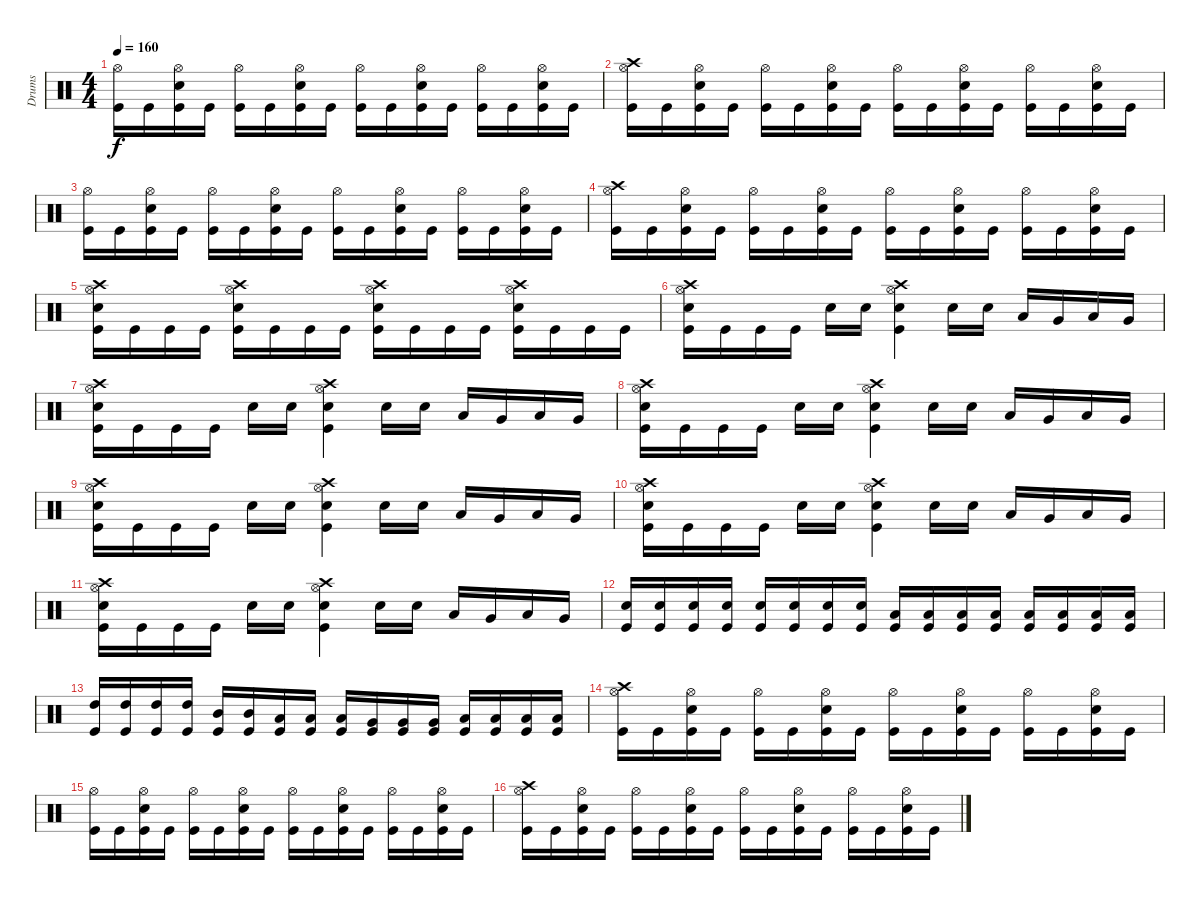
\track ("Drums" "Drums") {instrument percussion}
\staff {score}
\articulation defaults
\ts (4 4)
\tempo 160
\clef neutral
\ks c
("Hi-Hat (open)" "Kick (hit)").16{dy f} "Kick (hit)".16 ("Hi-Hat (open)" "Electric Snare (hit)" "Kick (hit)").16 "Kick (hit)".16 ("Hi-Hat (open)" "Kick (hit)").16 "Kick (hit)".16 ("Hi-Hat (open)" "Electric Snare (hit)" "Kick (hit)").16 "Kick (hit)".16 ("Hi-Hat (open)" "Kick (hit)").16 "Kick (hit)".16 ("Hi-Hat (open)" "Electric Snare (hit)" "Kick (hit)").16 "Kick (hit)".16 ("Hi-Hat (open)" "Kick (hit)").16 "Kick (hit)".16 ("Hi-Hat (open)" "Electric Snare (hit)" "Kick (hit)").16 "Kick (hit)".16 |
("Crash high (hit)" "Hi-Hat (open)" "Kick (hit)").16 "Kick (hit)".16 ("Hi-Hat (open)" "Electric Snare (hit)" "Kick (hit)").16 "Kick (hit)".16 ("Hi-Hat (open)" "Kick (hit)").16 "Kick (hit)".16 ("Hi-Hat (open)" "Electric Snare (hit)" "Kick (hit)").16 "Kick (hit)".16 ("Hi-Hat (open)" "Kick (hit)").16 "Kick (hit)".16 ("Hi-Hat (open)" "Electric Snare (hit)" "Kick (hit)").16 "Kick (hit)".16 ("Hi-Hat (open)" "Kick (hit)").16 "Kick (hit)".16 ("Hi-Hat (open)" "Electric Snare (hit)" "Kick (hit)").16 "Kick (hit)".16 |
("Hi-Hat (open)" "Kick (hit)").16 "Kick (hit)".16 ("Hi-Hat (open)" "Electric Snare (hit)" "Kick (hit)").16 "Kick (hit)".16 ("Hi-Hat (open)" "Kick (hit)").16 "Kick (hit)".16 ("Hi-Hat (open)" "Electric Snare (hit)" "Kick (hit)").16 "Kick (hit)".16 ("Hi-Hat (open)" "Kick (hit)").16 "Kick (hit)".16 ("Hi-Hat (open)" "Electric Snare (hit)" "Kick (hit)").16 "Kick (hit)".16 ("Hi-Hat (open)" "Kick (hit)").16 "Kick (hit)".16 ("Hi-Hat (open)" "Electric Snare (hit)" "Kick (hit)").16 "Kick (hit)".16 |
("Crash high (hit)" "Hi-Hat (open)" "Kick (hit)").16 "Kick (hit)".16 ("Hi-Hat (open)" "Electric Snare (hit)" "Kick (hit)").16 "Kick (hit)".16 ("Hi-Hat (open)" "Kick (hit)").16 "Kick (hit)".16 ("Hi-Hat (open)" "Electric Snare (hit)" "Kick (hit)").16 "Kick (hit)".16 ("Hi-Hat (open)" "Kick (hit)").16 "Kick (hit)".16 ("Hi-Hat (open)" "Electric Snare (hit)" "Kick (hit)").16 "Kick (hit)".16 ("Hi-Hat (open)" "Kick (hit)").16 "Kick (hit)".16 ("Hi-Hat (open)" "Electric Snare (hit)" "Kick (hit)").16 "Kick (hit)".16 |
("Electric Snare (hit)" "Crash high (hit)" "Hi-Hat (open)" "Kick (hit)").16 "Kick (hit)".16 "Kick (hit)".16 "Kick (hit)".16 ("Electric Snare (hit)" "Crash high (hit)" "Hi-Hat (open)" "Kick (hit)").16 "Kick (hit)".16 "Kick (hit)".16 "Kick (hit)".16 ("Electric Snare (hit)" "Crash high (hit)" "Hi-Hat (open)" "Kick (hit)").16 "Kick (hit)".16 "Kick (hit)".16 "Kick (hit)".16 ("Crash high (hit)" "Electric Snare (hit)" "Hi-Hat (open)" "Kick (hit)").16 "Kick (hit)".16 "Kick (hit)".16 "Kick (hit)".16 |
("Electric Snare (hit)" "Crash high (hit)" "Hi-Hat (open)" "Kick (hit)").16 "Kick (hit)".16 "Kick (hit)".16 "Kick (hit)".16 "Electric Snare (hit)".16 "Electric Snare (hit)".16 ("Electric Snare (hit)" "Crash high (hit)" "Hi-Hat (open)" "Kick (hit)").4 "Electric Snare (hit)".16 "Electric Snare (hit)".16 "Low Tom (hit)".16 "Very Low Tom (hit)".16 "Low Floor Tom (hit)".16 "Very Low Tom (hit)".16 |
("Electric Snare (hit)" "Crash high (hit)" "Hi-Hat (open)" "Kick (hit)").16 "Kick (hit)".16 "Kick (hit)".16 "Kick (hit)".16 "Electric Snare (hit)".16 "Electric Snare (hit)".16 ("Electric Snare (hit)" "Crash high (hit)" "Hi-Hat (open)" "Kick (hit)").4 "Electric Snare (hit)".16 "Electric Snare (hit)".16 "Low Tom (hit)".16 "Very Low Tom (hit)".16 "Low Floor Tom (hit)".16 "Very Low Tom (hit)".16 |
("Electric Snare (hit)" "Crash high (hit)" "Hi-Hat (open)" "Kick (hit)").16 "Kick (hit)".16 "Kick (hit)".16 "Kick (hit)".16 "Electric Snare (hit)".16 "Electric Snare (hit)".16 ("Electric Snare (hit)" "Crash high (hit)" "Hi-Hat (open)" "Kick (hit)").4 "Electric Snare (hit)".16 "Electric Snare (hit)".16 "Low Tom (hit)".16 "Very Low Tom (hit)".16 "Low Floor Tom (hit)".16 "Very Low Tom (hit)".16 |
("Electric Snare (hit)" "Crash high (hit)" "Hi-Hat (open)" "Kick (hit)").16 "Kick (hit)".16 "Kick (hit)".16 "Kick (hit)".16 "Electric Snare (hit)".16 "Electric Snare (hit)".16 ("Electric Snare (hit)" "Crash high (hit)" "Hi-Hat (open)" "Kick (hit)").4 "Electric Snare (hit)".16 "Electric Snare (hit)".16 "Low Tom (hit)".16 "Very Low Tom (hit)".16 "Low Floor Tom (hit)".16 "Very Low Tom (hit)".16 |
("Electric Snare (hit)" "Crash high (hit)" "Hi-Hat (open)" "Kick (hit)").16 "Kick (hit)".16 "Kick (hit)".16 "Kick (hit)".16 "Electric Snare (hit)".16 "Electric Snare (hit)".16 ("Electric Snare (hit)" "Crash high (hit)" "Hi-Hat (open)" "Kick (hit)").4 "Electric Snare (hit)".16 "Electric Snare (hit)".16 "Low Tom (hit)".16 "Very Low Tom (hit)".16 "Low Floor Tom (hit)".16 "Very Low Tom (hit)".16 |
("Electric Snare (hit)" "Crash high (hit)" "Hi-Hat (open)" "Kick (hit)").16 "Kick (hit)".16 "Kick (hit)".16 "Kick (hit)".16 "Electric Snare (hit)".16 "Electric Snare (hit)".16 ("Electric Snare (hit)" "Crash high (hit)" "Hi-Hat (open)" "Kick (hit)").4 "Electric Snare (hit)".16 "Electric Snare (hit)".16 "Low Tom (hit)".16 "Very Low Tom (hit)".16 "Low Floor Tom (hit)".16 "Very Low Tom (hit)".16 |
("Electric Snare (hit)" "Kick (hit)").16 ("Electric Snare (hit)" "Kick (hit)").16 ("Electric Snare (hit)" "Kick (hit)").16 ("Electric Snare (hit)" "Kick (hit)").16 ("Electric Snare (hit)" "Kick (hit)").16 ("Electric Snare (hit)" "Kick (hit)").16 ("Electric Snare (hit)" "Kick (hit)").16 ("Electric Snare (hit)" "Kick (hit)").16 ("Low Tom (hit)" "Kick (hit)").16 ("Low Tom (hit)" "Kick (hit)").16 ("Low Tom (hit)" "Kick (hit)").16 ("Low Tom (hit)" "Kick (hit)").16 ("Low Tom (hit)" "Kick (hit)").16 ("Low Tom (hit)" "Kick (hit)").16 ("Low Tom (hit)" "Kick (hit)").16 ("Low Tom (hit)" "Kick (hit)").16 |
("Kick (hit)" "High Tom (hit)").16 ("Kick (hit)" "High Tom (hit)").16 ("Kick (hit)" "High Tom (hit)").16 ("Kick (hit)" "High Tom (hit)").16 ("Kick (hit)" "Mid Tom (hit)").16 ("Kick (hit)" "Mid Tom (hit)").16 ("Kick (hit)" "Low Tom (hit)").16 ("Kick (hit)" "Low Tom (hit)").16 ("Kick (hit)" "Low Tom (hit)").16 ("Kick (hit)" "Very Low Tom (hit)").16 ("Kick (hit)" "Very Low Tom (hit)").16 ("Kick (hit)" "Very Low Tom (hit)").16 ("Kick (hit)" "Low Floor Tom (hit)").16 ("Kick (hit)" "Low Floor Tom (hit)").16 ("Kick (hit)" "Low Floor Tom (hit)").16 ("Kick (hit)" "Low Floor Tom (hit)").16 |
("Crash high (hit)" "Hi-Hat (open)" "Kick (hit)").16 "Kick (hit)".16 ("Hi-Hat (open)" "Electric Snare (hit)" "Kick (hit)").16 "Kick (hit)".16 ("Hi-Hat (open)" "Kick (hit)").16 "Kick (hit)".16 ("Hi-Hat (open)" "Electric Snare (hit)" "Kick (hit)").16 "Kick (hit)".16 ("Hi-Hat (open)" "Kick (hit)").16 "Kick (hit)".16 ("Hi-Hat (open)" "Electric Snare (hit)" "Kick (hit)").16 "Kick (hit)".16 ("Hi-Hat (open)" "Kick (hit)").16 "Kick (hit)".16 ("Hi-Hat (open)" "Electric Snare (hit)" "Kick (hit)").16 "Kick (hit)".16 |
("Hi-Hat (open)" "Kick (hit)").16 "Kick (hit)".16 ("Hi-Hat (open)" "Electric Snare (hit)" "Kick (hit)").16 "Kick (hit)".16 ("Hi-Hat (open)" "Kick (hit)").16 "Kick (hit)".16 ("Hi-Hat (open)" "Electric Snare (hit)" "Kick (hit)").16 "Kick (hit)".16 ("Hi-Hat (open)" "Kick (hit)").16 "Kick (hit)".16 ("Hi-Hat (open)" "Electric Snare (hit)" "Kick (hit)").16 "Kick (hit)".16 ("Hi-Hat (open)" "Kick (hit)").16 "Kick (hit)".16 ("Hi-Hat (open)" "Electric Snare (hit)" "Kick (hit)").16 "Kick (hit)".16 |
("Crash high (hit)" "Hi-Hat (open)" "Kick (hit)").16 "Kick (hit)".16 ("Hi-Hat (open)" "Electric Snare (hit)" "Kick (hit)").16 "Kick (hit)".16 ("Hi-Hat (open)" "Kick (hit)").16 "Kick (hit)".16 ("Hi-Hat (open)" "Electric Snare (hit)" "Kick (hit)").16 "Kick (hit)".16 ("Hi-Hat (open)" "Kick (hit)").16 "Kick (hit)".16 ("Hi-Hat (open)" "Electric Snare (hit)" "Kick (hit)").16 "Kick (hit)".16 ("Hi-Hat (open)" "Kick (hit)").16 "Kick (hit)".16 ("Hi-Hat (open)" "Electric Snare (hit)" "Kick (hit)").16 "Kick (hit)".16
